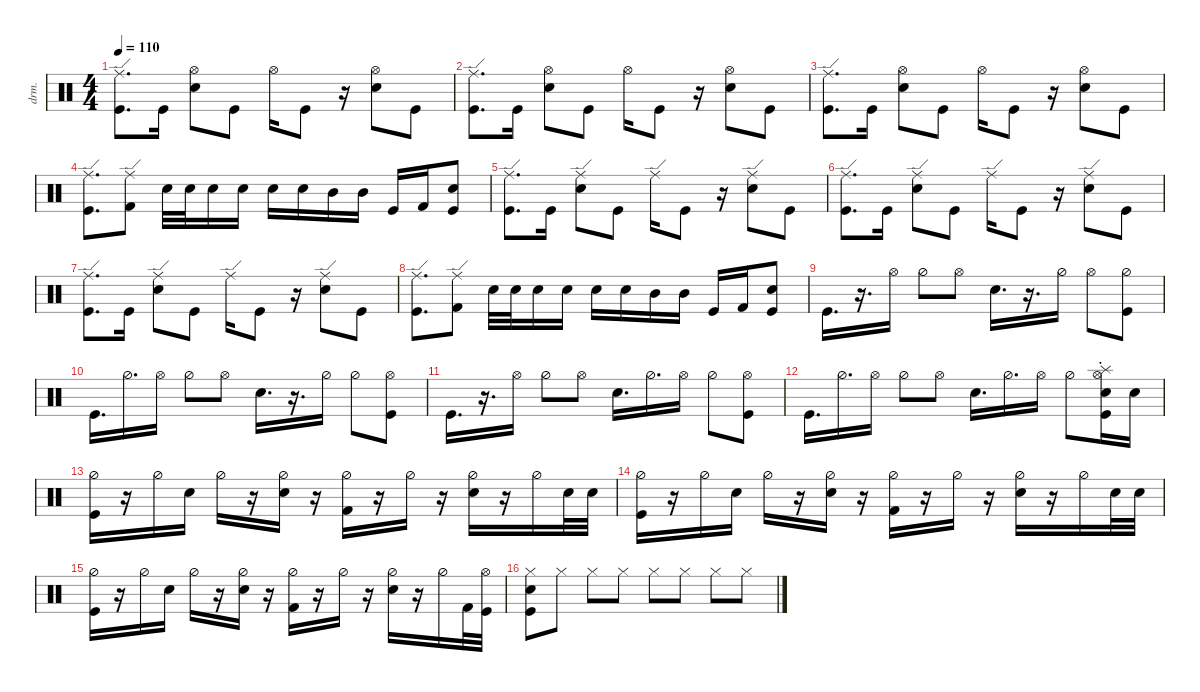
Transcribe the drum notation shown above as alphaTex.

\defaultSystemsLayout 4
\hideDynamics
\bracketExtendMode nobrackets
\otherSystemsTrackNameOrientation horizontal
\track ("Drumkit" "drm.") {instrument percussion}
\staff {score}
\articulation defaults
\ts (4 4)
\tempo 110
\clef neutral
\ks c
("Ride (edge)" "Kick (hit)").8{d dy mf beam Down} "Kick (hit)".16{beam Down} ("Hi-Hat (open)" "Snare (hit) 2").8{beam Down} "Kick (hit)".8{beam Down} "Hi-Hat (open)".16{beam Down} "Kick (hit)".8{beam Down} r.16{beam Down} ("Hi-Hat (open)" "Snare (hit) 2").8{beam Down} "Kick (hit)".8{beam Down} |
("Ride (edge)" "Kick (hit)").8{d beam Down} "Kick (hit)".16{beam Down} ("Hi-Hat (open)" "Snare (hit) 2").8{beam Down} "Kick (hit)".8{beam Down} "Hi-Hat (open)".16{beam Down} "Kick (hit)".8{beam Down} r.16{beam Down} ("Hi-Hat (open)" "Snare (hit) 2").8{beam Down} "Kick (hit)".8{beam Down} |
("Ride (edge)" "Kick (hit)").8{d beam Down} "Kick (hit)".16{beam Down} ("Hi-Hat (open)" "Snare (hit) 2").8{beam Down} "Kick (hit)".8{beam Down} "Hi-Hat (open)".16{beam Down} "Kick (hit)".8{beam Down} r.16{beam Down} ("Hi-Hat (open)" "Snare (hit) 2").8{beam Down} "Kick (hit)".8{beam Down} |
("Kick (hit)" "Ride (edge)").8{d beam Down} ("Ride (edge)" "Kick (hit) 2").8{beam Down} "Snare (hit) 2".32{beam Down} "Snare (hit) 2".32{beam Down} "Snare (hit) 2".16{beam Down} "Snare (hit) 2".16{beam Down} "Snare (hit) 2".16{beam Down} "Snare (hit) 2".16{beam Down} "Mid Tom (hit)".16{beam Down} "Mid Tom (hit)".16{beam Down} "Kick (hit)".16{beam Up} "Kick (hit) 2".16{beam Up} ("Snare (hit) 2" "Kick (hit)").8{beam Up} |
("Ride (edge)" "Kick (hit)").8{d beam Down} "Kick (hit)".16{beam Down} ("Snare (hit) 2" "Ride (edge)").8{beam Down} "Kick (hit)".8{beam Down} "Ride (edge)".16{beam Down} "Kick (hit)".8{beam Down} r.16{beam Down} ("Snare (hit) 2" "Ride (edge)").8{beam Down} "Kick (hit)".8{beam Down} |
("Ride (edge)" "Kick (hit)").8{d beam Down} "Kick (hit)".16{beam Down} ("Snare (hit) 2" "Ride (edge)").8{beam Down} "Kick (hit)".8{beam Down} "Ride (edge)".16{beam Down} "Kick (hit)".8{beam Down} r.16{beam Down} ("Snare (hit) 2" "Ride (edge)").8{beam Down} "Kick (hit)".8{beam Down} |
("Ride (edge)" "Kick (hit)").8{d beam Down} "Kick (hit)".16{beam Down} ("Snare (hit) 2" "Ride (edge)").8{beam Down} "Kick (hit)".8{beam Down} "Ride (edge)".16{beam Down} "Kick (hit)".8{beam Down} r.16{beam Down} ("Snare (hit) 2" "Ride (edge)").8{beam Down} "Kick (hit)".8{beam Down} |
("Kick (hit)" "Ride (edge)").8{d beam Down} ("Ride (edge)" "Kick (hit) 2").8{beam Down} "Snare (hit) 2".32{beam Down} "Snare (hit) 2".32{beam Down} "Snare (hit) 2".16{beam Down} "Snare (hit) 2".16{beam Down} "Snare (hit) 2".16{beam Down} "Snare (hit) 2".16{beam Down} "Mid Tom (hit)".16{beam Down} "Mid Tom (hit)".16{beam Down} "Kick (hit)".16{beam Up} "Kick (hit) 2".16{beam Up} ("Snare (hit) 2" "Kick (hit)").8{beam Up} |
"Kick (hit)".16{d beam Down} r.16{d beam Down} "Hi-Hat (open)".16{beam Down} "Hi-Hat (half)".8{beam Down} "Hi-Hat (open)".8{beam Down} "Snare (hit) 2".16{d beam Down} r.16{d beam Down} "Hi-Hat (half)".16{beam Down} "Hi-Hat (open)".8{beam Down} ("Hi-Hat (half)" "Kick (hit)").8{beam Down} |
"Kick (hit)".16{d beam Down} "Hi-Hat (half)".16{d beam Down} "Hi-Hat (open)".16{beam Down} "Hi-Hat (half)".8{beam Down} "Hi-Hat (open)".8{beam Down} "Snare (hit) 2".16{d beam Down} r.16{d beam Down} "Hi-Hat (half)".16{beam Down} "Hi-Hat (half)".8{beam Down} ("Hi-Hat (open)" "Kick (hit)").8{beam Down} |
"Kick (hit)".16{d beam Down} r.16{d beam Down} "Hi-Hat (open)".16{beam Down} "Hi-Hat (half)".8{beam Down} "Hi-Hat (open)".8{beam Down} "Snare (hit) 2".16{d beam Down} "Hi-Hat (half)".16{d beam Down} "Hi-Hat (open)".16{beam Down} "Hi-Hat (half)".8{beam Down} ("Hi-Hat (open)" "Kick (hit)").8{beam Down} |
"Kick (hit)".16{d beam Down} "Hi-Hat (half)".16{d beam Down} "Hi-Hat (open)".16{beam Down} "Hi-Hat (half)".8{beam Down} "Hi-Hat (open)".8{beam Down} "Snare (hit) 2".16{d beam Down} "Hi-Hat (half)".16{d beam Down} "Hi-Hat (open)".16{beam Down} "Hi-Hat (half)".8{beam Down} ("Hi-Hat (open)" "Kick (hit)" "Splash (choke)" "Snare (hit) 2").16{beam Down} "Snare (hit) 2".16{beam Down} |
("Hi-Hat (half)" "Kick (hit)").16{beam Down} r.16{beam Down} "Hi-Hat (half)".16{beam Down} "Snare (hit) 2".16{beam Down} "Hi-Hat (half)".16{beam Down} r.16{beam Down} ("Hi-Hat (half)" "Snare (hit) 2").16{beam Down} r.16{beam Down} ("Hi-Hat (half)" "Kick (hit) 2").16{beam Down} r.16{beam Down} "Hi-Hat (half)".16{beam Down} r.16{beam Down} ("Hi-Hat (half)" "Snare (hit) 2").16{beam Down} r.16{beam Down} "Hi-Hat (half)".16{beam Down} "Snare (hit) 2".32{beam Down} "Snare (hit) 2".32{beam Down} |
("Hi-Hat (half)" "Kick (hit)").16{beam Down} r.16{beam Down} "Hi-Hat (half)".16{beam Down} "Snare (hit) 2".16{beam Down} "Hi-Hat (half)".16{beam Down} r.16{beam Down} ("Hi-Hat (half)" "Snare (hit) 2").16{beam Down} r.16{beam Down} ("Hi-Hat (half)" "Kick (hit) 2").16{beam Down} r.16{beam Down} "Hi-Hat (half)".16{beam Down} r.16{beam Down} ("Hi-Hat (half)" "Snare (hit) 2").16{beam Down} r.16{beam Down} "Hi-Hat (half)".16{beam Down} "Snare (hit) 2".32{beam Down} "Snare (hit) 2".32{beam Down} |
("Hi-Hat (half)" "Kick (hit)").16{beam Down} r.16{beam Down} "Hi-Hat (half)".16{beam Down} "Snare (hit) 2".16{beam Down} "Hi-Hat (half)".16{beam Down} r.16{beam Down} ("Hi-Hat (half)" "Snare (hit) 2").16{beam Down} r.16{beam Down} ("Hi-Hat (half)" "Kick (hit) 2").16{beam Down} r.16{beam Down} "Hi-Hat (half)".16{beam Down} r.16{beam Down} ("Hi-Hat (half)" "Snare (hit) 2").16{beam Down} r.16{beam Down} "Hi-Hat (half)".16{beam Down} "Kick (hit) 2".32{beam Down} ("Hi-Hat (open)" "Kick (hit)").32{beam Down} |
("Hi-Hat (closed)" "Snare (hit) 2" "Kick (hit)").8{beam Down} "Hi-Hat (closed)".8{beam Down} "Hi-Hat (closed)".8{beam Down} "Hi-Hat (closed)".8{beam Down} "Hi-Hat (closed)".8{beam Down} "Hi-Hat (closed)".8{beam Down} "Hi-Hat (closed)".8{beam Down} "Hi-Hat (closed)".8{beam Down}
